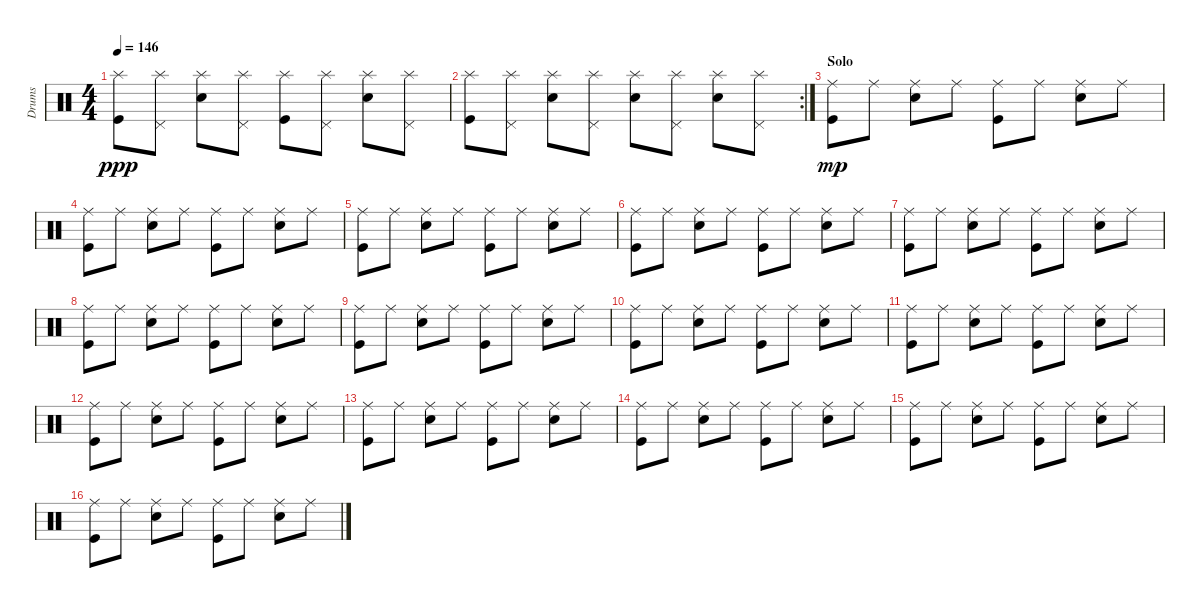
\track ("Drums" "Drums") {instrument percussion}
\staff {score}
\articulation defaults
\ts (4 4)
\tempo 146
\clef neutral
\ks c
("Kick (hit)" "Splash (hit)").8{dy ppp} ("Pedal Hi-Hat (hit)" "Splash (hit)").8 ("Electric Snare (hit)" "Splash (hit)").8 ("Pedal Hi-Hat (hit)" "Splash (hit)").8 ("Kick (hit)" "Splash (hit)").8 ("Pedal Hi-Hat (hit)" "Splash (hit)").8 ("Electric Snare (hit)" "Splash (hit)").8 ("Pedal Hi-Hat (hit)" "Splash (hit)").8 |
\rc 2
("Kick (hit)" "Splash (hit)").8 ("Pedal Hi-Hat (hit)" "Splash (hit)").8 ("Electric Snare (hit)" "Splash (hit)").8 ("Pedal Hi-Hat (hit)" "Splash (hit)").8 ("Electric Snare (hit)" "Splash (hit)").8 ("Pedal Hi-Hat (hit)" "Splash (hit)").8 ("Electric Snare (hit)" "Splash (hit)").8 ("Pedal Hi-Hat (hit)" "Splash (hit)").8 |
\section ("" "Solo")
("Kick (hit)" "Ride (middle)").8{dy mp} "Ride (middle)".8 ("Electric Snare (hit)" "Ride (middle)").8 "Ride (middle)".8 ("Kick (hit)" "Ride (middle)").8 "Ride (middle)".8 ("Electric Snare (hit)" "Ride (middle)").8 "Ride (middle)".8 |
("Kick (hit)" "Ride (middle)").8 "Ride (middle)".8 ("Electric Snare (hit)" "Ride (middle)").8 "Ride (middle)".8 ("Kick (hit)" "Ride (middle)").8 "Ride (middle)".8 ("Electric Snare (hit)" "Ride (middle)").8 "Ride (middle)".8 |
("Kick (hit)" "Ride (middle)").8 "Ride (middle)".8 ("Electric Snare (hit)" "Ride (middle)").8 "Ride (middle)".8 ("Kick (hit)" "Ride (middle)").8 "Ride (middle)".8 ("Electric Snare (hit)" "Ride (middle)").8 "Ride (middle)".8 |
("Kick (hit)" "Ride (middle)").8 "Ride (middle)".8 ("Electric Snare (hit)" "Ride (middle)").8 "Ride (middle)".8 ("Kick (hit)" "Ride (middle)").8 "Ride (middle)".8 ("Electric Snare (hit)" "Ride (middle)").8 "Ride (middle)".8 |
("Kick (hit)" "Ride (middle)").8 "Ride (middle)".8 ("Electric Snare (hit)" "Ride (middle)").8 "Ride (middle)".8 ("Kick (hit)" "Ride (middle)").8 "Ride (middle)".8 ("Electric Snare (hit)" "Ride (middle)").8 "Ride (middle)".8 |
("Kick (hit)" "Ride (middle)").8 "Ride (middle)".8 ("Electric Snare (hit)" "Ride (middle)").8 "Ride (middle)".8 ("Kick (hit)" "Ride (middle)").8 "Ride (middle)".8 ("Electric Snare (hit)" "Ride (middle)").8 "Ride (middle)".8 |
("Kick (hit)" "Ride (middle)").8 "Ride (middle)".8 ("Electric Snare (hit)" "Ride (middle)").8 "Ride (middle)".8 ("Kick (hit)" "Ride (middle)").8 "Ride (middle)".8 ("Electric Snare (hit)" "Ride (middle)").8 "Ride (middle)".8 |
("Kick (hit)" "Ride (middle)").8 "Ride (middle)".8 ("Electric Snare (hit)" "Ride (middle)").8 "Ride (middle)".8 ("Kick (hit)" "Ride (middle)").8 "Ride (middle)".8 ("Electric Snare (hit)" "Ride (middle)").8 "Ride (middle)".8 |
("Kick (hit)" "Ride (middle)").8 "Ride (middle)".8 ("Electric Snare (hit)" "Ride (middle)").8 "Ride (middle)".8 ("Kick (hit)" "Ride (middle)").8 "Ride (middle)".8 ("Electric Snare (hit)" "Ride (middle)").8 "Ride (middle)".8 |
("Kick (hit)" "Ride (middle)").8 "Ride (middle)".8 ("Electric Snare (hit)" "Ride (middle)").8 "Ride (middle)".8 ("Kick (hit)" "Ride (middle)").8 "Ride (middle)".8 ("Electric Snare (hit)" "Ride (middle)").8 "Ride (middle)".8 |
("Kick (hit)" "Ride (middle)").8 "Ride (middle)".8 ("Electric Snare (hit)" "Ride (middle)").8 "Ride (middle)".8 ("Kick (hit)" "Ride (middle)").8 "Ride (middle)".8 ("Electric Snare (hit)" "Ride (middle)").8 "Ride (middle)".8 |
("Kick (hit)" "Ride (middle)").8 "Ride (middle)".8 ("Electric Snare (hit)" "Ride (middle)").8 "Ride (middle)".8 ("Kick (hit)" "Ride (middle)").8 "Ride (middle)".8 ("Electric Snare (hit)" "Ride (middle)").8 "Ride (middle)".8 |
("Kick (hit)" "Ride (middle)").8 "Ride (middle)".8 ("Electric Snare (hit)" "Ride (middle)").8 "Ride (middle)".8 ("Kick (hit)" "Ride (middle)").8 "Ride (middle)".8 ("Electric Snare (hit)" "Ride (middle)").8 "Ride (middle)".8 |
("Kick (hit)" "Ride (middle)").8 "Ride (middle)".8 ("Electric Snare (hit)" "Ride (middle)").8 "Ride (middle)".8 ("Kick (hit)" "Ride (middle)").8 "Ride (middle)".8 ("Electric Snare (hit)" "Ride (middle)").8 "Ride (middle)".8
